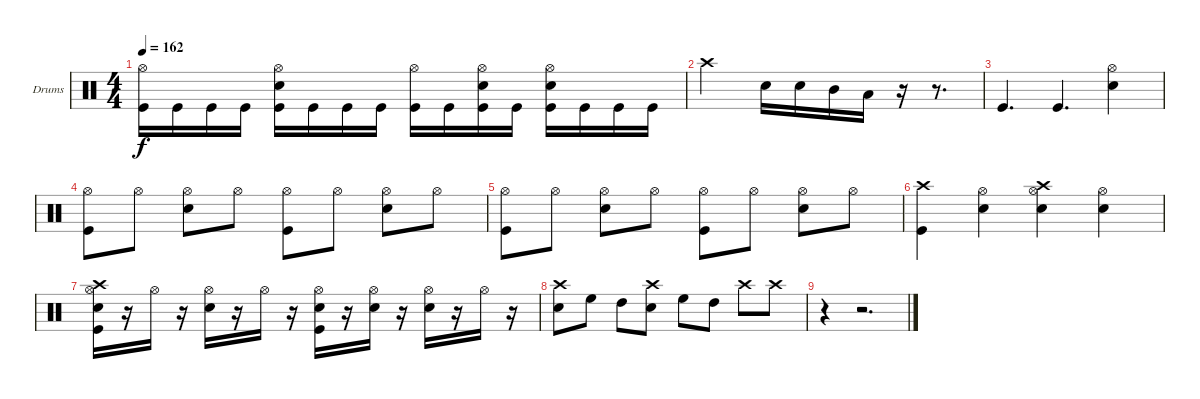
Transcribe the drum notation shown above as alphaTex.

\bracketExtendMode groupsimilarinstruments
\firstSystemTrackNameOrientation horizontal
\otherSystemsTrackNameOrientation horizontal
\track ("Drumkit" "Drums") {instrument percussion}
\staff {score}
\articulation defaults
\ts (4 4)
\tempo 162
\clef neutral
\ks c
("Hi-Hat (open)" "Kick (hit)").16{dy f} "Kick (hit)".16 "Kick (hit)".16 "Kick (hit)".16 ("Kick (hit)" "Snare (hit) 2" "Hi-Hat (open)").16 "Kick (hit)".16 "Kick (hit)".16 "Kick (hit)".16 ("Kick (hit)" "Hi-Hat (open)").16 "Kick (hit)".16 ("Kick (hit)" "Snare (hit) 2" "Hi-Hat (open)").16 "Kick (hit)".16 ("Kick (hit)" "Snare (hit) 2" "Hi-Hat (open)").16 "Kick (hit)".16 "Kick (hit)".16 "Kick (hit)".16 |
"Crash high (hit)".2 "Snare (hit) 2".16 "Snare (hit) 2".16 "Mid Tom (hit)".16 "Low Tom (hit)".16 r.16 r.8{d} |
"Kick (hit)".4{d} "Kick (hit)".4{d} ("Hi-Hat (open)" "Snare (hit) 2").4 |
("Hi-Hat (open)" "Kick (hit)").8 "Hi-Hat (open)".8 ("Snare (hit) 2" "Hi-Hat (open)").8 "Hi-Hat (open)".8 ("Hi-Hat (open)" "Kick (hit)").8 "Hi-Hat (open)".8 ("Snare (hit) 2" "Hi-Hat (open)").8 "Hi-Hat (open)".8 |
("Hi-Hat (open)" "Kick (hit)").8 "Hi-Hat (open)".8 ("Snare (hit) 2" "Hi-Hat (open)").8 "Hi-Hat (open)".8 ("Hi-Hat (open)" "Kick (hit)").8 "Hi-Hat (open)".8 ("Snare (hit) 2" "Hi-Hat (open)").8 "Hi-Hat (open)".8 |
("Crash high (hit)" "Kick (hit)").4 ("Snare (hit) 2" "Hi-Hat (open)").4 ("Crash high (hit)" "Hi-Hat (open)" "Snare (hit) 2").4 ("Snare (hit) 2" "Hi-Hat (open)").4 |
("Crash high (hit)" "Snare (hit) 2" "Hi-Hat (open)" "Kick (hit)").16 r.16 "Hi-Hat (open)".16 r.16 ("Snare (hit) 2" "Hi-Hat (open)").16 r.16 "Hi-Hat (open)".16 r.16 ("Snare (hit) 2" "Hi-Hat (open)" "Kick (hit)").16 r.16 ("Hi-Hat (open)" "Snare (hit) 2").16 r.16 ("Snare (hit) 2" "Hi-Hat (open)").16 r.16 "Hi-Hat (open)".16 r.16 |
("Crash high (hit)" "Snare (hit) 2").8 "High Floor Tom (hit)".8 "High Tom (hit)".8 ("Crash high (hit)" "Snare (hit) 2").8 "High Floor Tom (hit)".8 "High Tom (hit)".8 "Crash high (hit)".8 "Crash high (hit)".8 |
r.4 r.2{d}
